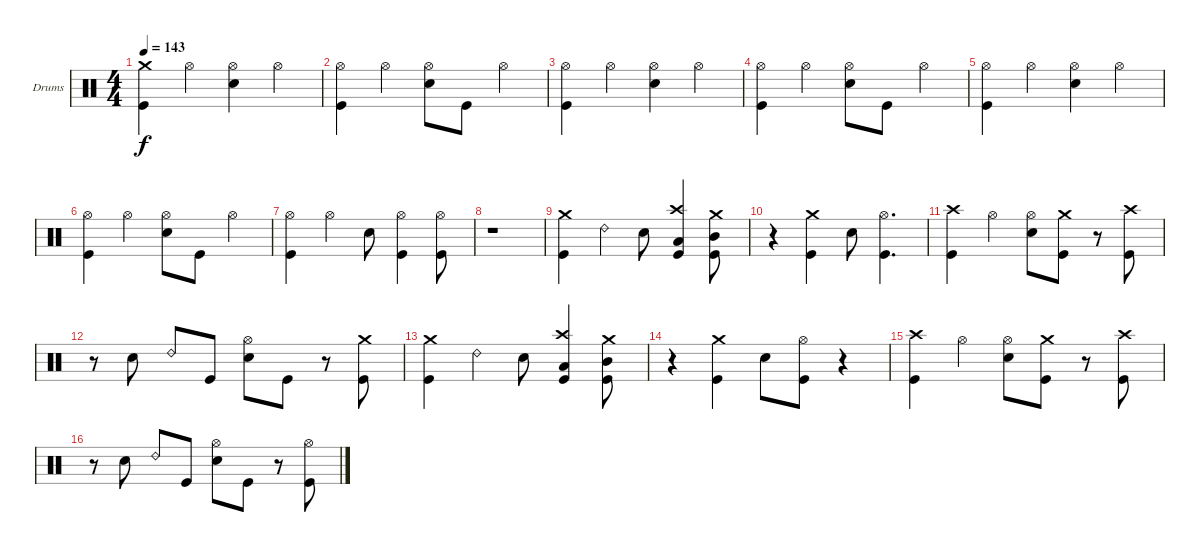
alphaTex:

\bracketExtendMode groupsimilarinstruments
\firstSystemTrackNameOrientation horizontal
\otherSystemsTrackNameOrientation horizontal
\track ("Drumkit" "Drums") {instrument percussion}
\staff {score}
\articulation defaults
\ts (4 4)
\tempo 143
\clef neutral
\ks c
("Crash medium (hit)" "Kick (hit)").4{dy f} "Hi-Hat (open)".4 ("Hi-Hat (open)" "Snare (hit) 2").4 "Hi-Hat (open)".4 |
("Hi-Hat (open)" "Kick (hit)").4 "Hi-Hat (open)".4 ("Hi-Hat (open)" "Snare (hit) 2").8 "Kick (hit)".8 "Hi-Hat (open)".4 |
("Hi-Hat (open)" "Kick (hit)").4 "Hi-Hat (open)".4 ("Hi-Hat (open)" "Snare (hit) 2").4 "Hi-Hat (open)".4 |
("Hi-Hat (open)" "Kick (hit)").4 "Hi-Hat (open)".4 ("Hi-Hat (open)" "Snare (hit) 2").8 "Kick (hit)".8 "Hi-Hat (open)".4 |
("Hi-Hat (open)" "Kick (hit)").4 "Hi-Hat (open)".4 ("Hi-Hat (open)" "Snare (hit) 2").4 "Hi-Hat (open)".4 |
("Hi-Hat (open)" "Kick (hit)").4 "Hi-Hat (open)".4 ("Hi-Hat (open)" "Snare (hit) 2").8 "Kick (hit)".8 "Hi-Hat (open)".4 |
("Hi-Hat (open)" "Kick (hit)").4 "Hi-Hat (open)".4 "Snare (hit) 2".8 ("Hi-Hat (open)" "Kick (hit)").4 ("Hi-Hat (open)" "Kick (hit)").8 |
r.1 |
("Crash medium (hit)" "Kick (hit)").4 "Ride (bell) 2".4 "Snare (hit) 2".8 ("Crash high (hit)" "Low Tom (hit)" "Kick (hit)").4 ("Crash medium (hit)" "Mid Tom (hit)" "Kick (hit)").8 |
r.4 ("Crash medium (hit)" "Kick (hit)").4 "Snare (hit) 2".8 ("Hi-Hat (open)" "Kick (hit)").4{d} |
("Crash high (hit)" "Kick (hit)").4 "Hi-Hat (open)".4 ("Hi-Hat (open)" "Snare (hit) 2").8 ("Crash medium (hit)" "Kick (hit)").8 r.8 ("Crash high (hit)" "Kick (hit)").8 |
r.8 "Snare (hit) 2".8 "Ride (bell) 2".8 "Kick (hit)".8 ("Hi-Hat (open)" "Snare (hit) 2").8 "Kick (hit)".8 r.8 ("Crash medium (hit)" "Kick (hit)").8 |
("Crash medium (hit)" "Kick (hit)").4 "Ride (bell) 2".4 "Snare (hit) 2".8 ("Crash high (hit)" "Low Tom (hit)" "Kick (hit)").4 ("Crash medium (hit)" "Mid Tom (hit)" "Kick (hit)").8 |
r.4 ("Crash medium (hit)" "Kick (hit)").4 "Snare (hit) 2".8 ("Hi-Hat (open)" "Kick (hit)").8 r.4 |
("Crash high (hit)" "Kick (hit)").4 "Hi-Hat (open)".4 ("Hi-Hat (open)" "Snare (hit) 2").8 ("Crash medium (hit)" "Kick (hit)").8 r.8 ("Crash high (hit)" "Kick (hit)").8 |
r.8 "Snare (hit) 2".8 "Ride (bell) 2".8 "Kick (hit)".8 ("Hi-Hat (open)" "Snare (hit) 2").8 "Kick (hit)".8 r.8 ("Hi-Hat (open)" "Kick (hit)").8
